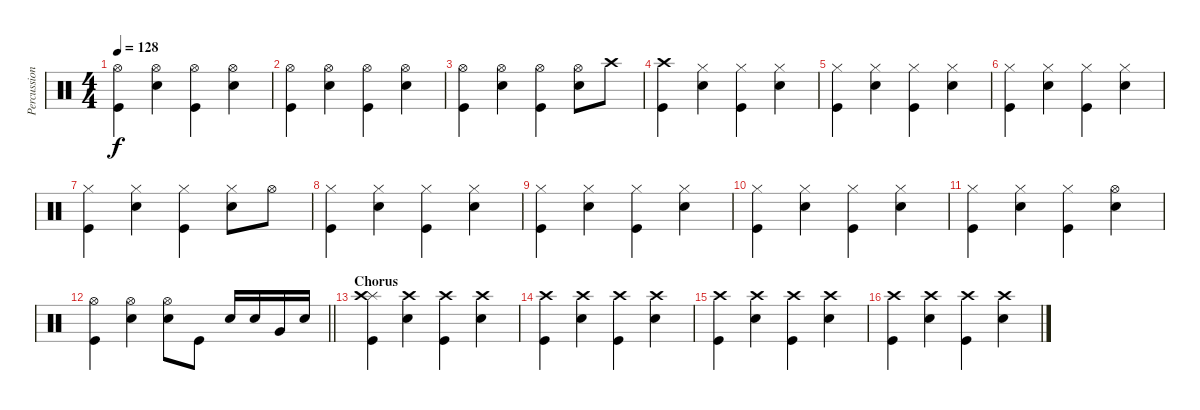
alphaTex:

\track ("Percussion" "Percussion") {instrument percussion}
\staff {score}
\articulation defaults
\ts (4 4)
\tempo 128
\clef neutral
\ks c
("Hi-Hat (open)" "Kick (hit)").4{dy f} ("Hi-Hat (open)" "Electric Snare (hit)").4 ("Hi-Hat (open)" "Kick (hit)").4 ("Hi-Hat (open)" "Electric Snare (hit)").4 |
("Hi-Hat (open)" "Kick (hit)").4 ("Hi-Hat (open)" "Electric Snare (hit)").4 ("Hi-Hat (open)" "Kick (hit)").4 ("Hi-Hat (open)" "Electric Snare (hit)").4 |
("Hi-Hat (open)" "Kick (hit)").4 ("Hi-Hat (open)" "Electric Snare (hit)").4 ("Hi-Hat (open)" "Kick (hit)").4 ("Hi-Hat (open)" "Electric Snare (hit)").8 "Crash high (hit)".8 |
("Crash high (hit)" "Kick (hit)").4 ("Hi-Hat (closed)" "Electric Snare (hit)").4 ("Hi-Hat (closed)" "Kick (hit)").4 ("Hi-Hat (closed)" "Electric Snare (hit)").4 |
("Hi-Hat (closed)" "Kick (hit)").4 ("Hi-Hat (closed)" "Electric Snare (hit)").4 ("Hi-Hat (closed)" "Kick (hit)").4 ("Hi-Hat (closed)" "Electric Snare (hit)").4 |
("Hi-Hat (closed)" "Kick (hit)").4 ("Hi-Hat (closed)" "Electric Snare (hit)").4 ("Hi-Hat (closed)" "Kick (hit)").4 ("Hi-Hat (closed)" "Electric Snare (hit)").4 |
("Hi-Hat (closed)" "Kick (hit)").4 ("Hi-Hat (closed)" "Electric Snare (hit)").4 ("Hi-Hat (closed)" "Kick (hit)").4 ("Hi-Hat (closed)" "Electric Snare (hit)").8 "Hi-Hat (open)".8 |
("Hi-Hat (closed)" "Kick (hit)").4 ("Hi-Hat (closed)" "Electric Snare (hit)").4 ("Hi-Hat (closed)" "Kick (hit)").4 ("Hi-Hat (closed)" "Electric Snare (hit)").4 |
("Hi-Hat (closed)" "Kick (hit)").4 ("Hi-Hat (closed)" "Electric Snare (hit)").4 ("Hi-Hat (closed)" "Kick (hit)").4 ("Hi-Hat (closed)" "Electric Snare (hit)").4 |
("Hi-Hat (closed)" "Kick (hit)").4 ("Hi-Hat (closed)" "Electric Snare (hit)").4 ("Hi-Hat (closed)" "Kick (hit)").4 ("Hi-Hat (closed)" "Electric Snare (hit)").4 |
("Hi-Hat (closed)" "Kick (hit)").4 ("Hi-Hat (closed)" "Electric Snare (hit)").4 ("Hi-Hat (closed)" "Kick (hit)").4 ("Hi-Hat (open)" "Electric Snare (hit)").4 |
\barLineRight lightlight
("Hi-Hat (open)" "Kick (hit)").4 ("Hi-Hat (open)" "Electric Snare (hit)").4 ("Hi-Hat (open)" "Electric Snare (hit)").8 "Kick (hit)".8 "Electric Snare (hit)".16 "Electric Snare (hit)".16 "Very Low Tom (hit)".16 "Electric Snare (hit)".16 |
\section ("" "Chorus")
("Splash (hit)" "Crash high (hit)" "Kick (hit)").4 ("Crash high (hit)" "Electric Snare (hit)").4 ("Crash high (hit)" "Kick (hit)").4 ("Crash high (hit)" "Electric Snare (hit)").4 |
("Crash high (hit)" "Kick (hit)").4 ("Crash high (hit)" "Electric Snare (hit)").4 ("Crash high (hit)" "Kick (hit)").4 ("Crash high (hit)" "Electric Snare (hit)").4 |
("Crash high (hit)" "Kick (hit)").4 ("Crash high (hit)" "Electric Snare (hit)").4 ("Crash high (hit)" "Kick (hit)").4 ("Crash high (hit)" "Electric Snare (hit)").4 |
("Crash high (hit)" "Kick (hit)").4 ("Crash high (hit)" "Electric Snare (hit)").4 ("Crash high (hit)" "Kick (hit)").4 ("Crash high (hit)" "Electric Snare (hit)").4
